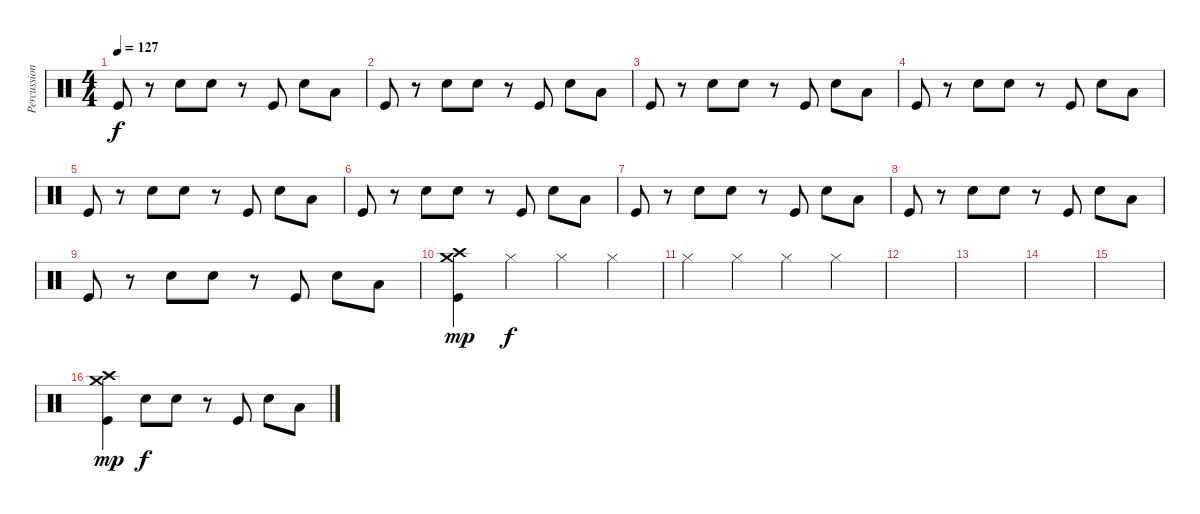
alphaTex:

\track ("Percussion" "Percussion") {instrument percussion}
\staff {score}
\articulation defaults
\ts (4 4)
\tempo 127
\clef neutral
\ks c "Kick (hit)".8{dy f}
r.8 "Snare (hit) 2".8 "Snare (hit) 2".8 r.8 "Kick (hit)".8 "Snare (hit) 2".8 "Low Floor Tom (hit)".8 |
"Kick (hit)".8 r.8 "Snare (hit) 2".8 "Snare (hit) 2".8 r.8 "Kick (hit)".8 "Snare (hit) 2".8 "Low Floor Tom (hit)".8 |
"Kick (hit)".8 r.8 "Snare (hit) 2".8 "Snare (hit) 2".8 r.8 "Kick (hit)".8 "Snare (hit) 2".8 "Low Floor Tom (hit)".8 |
"Kick (hit)".8 r.8 "Snare (hit) 2".8 "Snare (hit) 2".8 r.8 "Kick (hit)".8 "Snare (hit) 2".8 "Low Floor Tom (hit)".8 |
"Kick (hit)".8 r.8 "Snare (hit) 2".8 "Snare (hit) 2".8 r.8 "Kick (hit)".8 "Snare (hit) 2".8 "Low Floor Tom (hit)".8 |
"Kick (hit)".8 r.8 "Snare (hit) 2".8 "Snare (hit) 2".8 r.8 "Kick (hit)".8 "Snare (hit) 2".8 "Low Floor Tom (hit)".8 |
"Kick (hit)".8 r.8 "Snare (hit) 2".8 "Snare (hit) 2".8 r.8 "Kick (hit)".8 "Snare (hit) 2".8 "Low Floor Tom (hit)".8 |
"Kick (hit)".8 r.8 "Snare (hit) 2".8 "Snare (hit) 2".8 r.8 "Kick (hit)".8 "Snare (hit) 2".8 "Low Floor Tom (hit)".8 |
"Kick (hit)".8 r.8 "Snare (hit) 2".8 "Snare (hit) 2".8 r.8 "Kick (hit)".8 "Snare (hit) 2".8 "Low Floor Tom (hit)".8 |
("Crash medium (hit)" "Crash high (hit)" "Kick (hit)").4{dy mp} "Hi-Hat (closed)".4{dy f} "Hi-Hat (closed)".4 "Hi-Hat (closed)".4 |
"Hi-Hat (closed)".4 "Hi-Hat (closed)".4 "Hi-Hat (closed)".4 "Hi-Hat (closed)".4 |
|
|
|
|
("Crash medium (hit)" "Crash high (hit)" "Kick (hit)").4{dy mp volume 12} "Snare (hit) 2".8{dy f} "Snare (hit) 2".8 r.8 "Kick (hit)".8 "Snare (hit) 2".8 "Low Floor Tom (hit)".8
